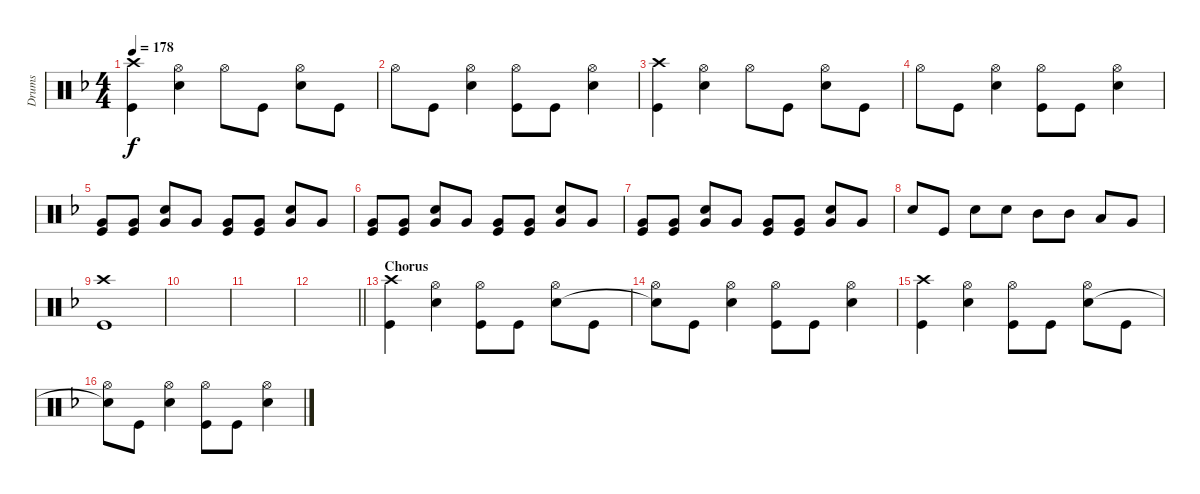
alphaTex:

\track ("Drums" "Drums") {instrument percussion}
\staff {score}
\articulation defaults
\ts (4 4)
\tempo 178
\clef neutral
\ks f
("Crash high (hit)" "Kick (hit)").4{dy f} ("Hi-Hat (open)" "Electric Snare (hit)").4 "Hi-Hat (open)".8 "Kick (hit)".8 ("Hi-Hat (open)" "Electric Snare (hit)").8 "Kick (hit)".8 |
"Hi-Hat (open)".8 "Kick (hit)".8 ("Hi-Hat (open)" "Electric Snare (hit)").4 ("Hi-Hat (open)" "Kick (hit)").8 "Kick (hit)".8 ("Hi-Hat (open)" "Electric Snare (hit)").4 |
("Crash high (hit)" "Kick (hit)").4 ("Hi-Hat (open)" "Electric Snare (hit)").4 "Hi-Hat (open)".8 "Kick (hit)".8 ("Hi-Hat (open)" "Electric Snare (hit)").8 "Kick (hit)".8 |
"Hi-Hat (open)".8 "Kick (hit)".8 ("Hi-Hat (open)" "Electric Snare (hit)").4 ("Hi-Hat (open)" "Kick (hit)").8 "Kick (hit)".8 ("Hi-Hat (open)" "Electric Snare (hit)").4 |
("Very Low Tom (hit)" "Kick (hit)").8 ("Very Low Tom (hit)" "Kick (hit)").8 ("Very Low Tom (hit)" "Electric Snare (hit)").8 "Very Low Tom (hit)".8 ("Very Low Tom (hit)" "Kick (hit)").8 ("Very Low Tom (hit)" "Kick (hit)").8 ("Very Low Tom (hit)" "Electric Snare (hit)").8 "Very Low Tom (hit)".8 |
("Very Low Tom (hit)" "Kick (hit)").8 ("Very Low Tom (hit)" "Kick (hit)").8 ("Very Low Tom (hit)" "Electric Snare (hit)").8 "Very Low Tom (hit)".8 ("Very Low Tom (hit)" "Kick (hit)").8 ("Very Low Tom (hit)" "Kick (hit)").8 ("Very Low Tom (hit)" "Electric Snare (hit)").8 "Very Low Tom (hit)".8 |
("Very Low Tom (hit)" "Kick (hit)").8 ("Very Low Tom (hit)" "Kick (hit)").8 ("Very Low Tom (hit)" "Electric Snare (hit)").8 "Very Low Tom (hit)".8 ("Very Low Tom (hit)" "Kick (hit)").8 ("Very Low Tom (hit)" "Kick (hit)").8 ("Very Low Tom (hit)" "Electric Snare (hit)").8 "Very Low Tom (hit)".8 |
"Electric Snare (hit)".8 "Kick (hit)".8 "Electric Snare (hit)".8 "Electric Snare (hit)".8 "Mid Tom (hit)".8 "Mid Tom (hit)".8 "Low Tom (hit)".8 "Very Low Tom (hit)".8 |
("Crash high (hit)" "Kick (hit)").1 |
|
|
\barLineRight lightlight
|
\section ("" "Chorus")
("Crash high (hit)" "Kick (hit)").4 ("Hi-Hat (open)" "Electric Snare (hit)").4 ("Hi-Hat (open)" "Kick (hit)").8 "Kick (hit)".8 ("Hi-Hat (open)" "Electric Snare (hit)").8 "Kick (hit)".8 |
("Hi-Hat (open)" "Snare (hit)"{t}).8 "Kick (hit)".8 ("Hi-Hat (open)" "Electric Snare (hit)").4 ("Hi-Hat (open)" "Kick (hit)").8 "Kick (hit)".8 ("Hi-Hat (open)" "Electric Snare (hit)").4 |
("Crash high (hit)" "Kick (hit)").4 ("Hi-Hat (open)" "Electric Snare (hit)").4 ("Hi-Hat (open)" "Kick (hit)").8 "Kick (hit)".8 ("Hi-Hat (open)" "Electric Snare (hit)").8 "Kick (hit)".8 |
("Hi-Hat (open)" "Snare (hit)"{t}).8 "Kick (hit)".8 ("Hi-Hat (open)" "Electric Snare (hit)").4 ("Hi-Hat (open)" "Kick (hit)").8 "Kick (hit)".8 ("Hi-Hat (open)" "Electric Snare (hit)").4
